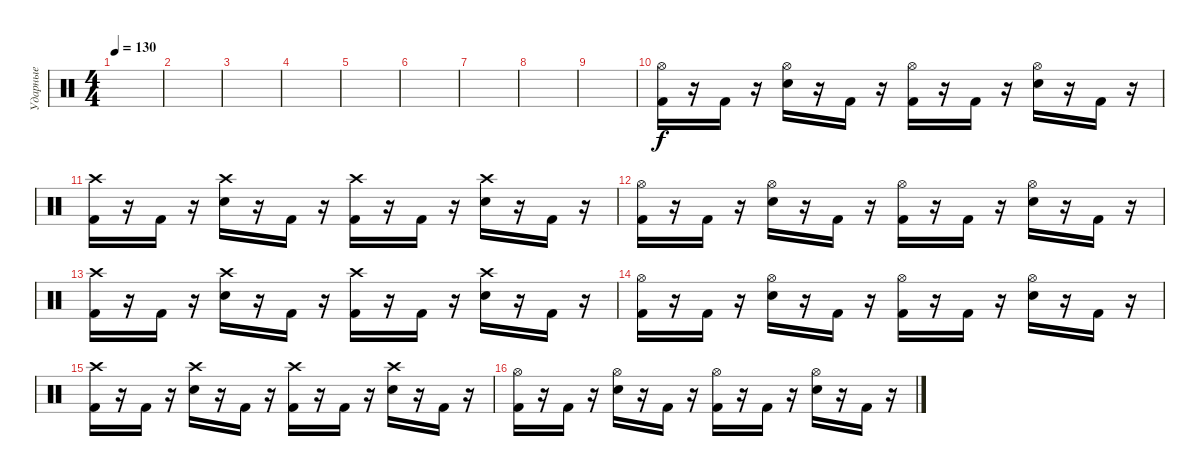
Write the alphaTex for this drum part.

\track ("Ударные" "Ударные") {instrument percussion}
\staff {score}
\articulation defaults
\ts (4 4)
\tempo 130
\clef neutral
\ks c
|
|
|
|
|
|
|
|
|
("Hi-Hat (open)" "Kick (hit) 2").16 r.16 "Kick (hit) 2".16 r.16 ("Hi-Hat (open)" "Electric Snare (hit)").16 r.16 "Kick (hit) 2".16 r.16 ("Hi-Hat (open)" "Kick (hit) 2").16 r.16 "Kick (hit) 2".16 r.16 ("Hi-Hat (open)" "Electric Snare (hit)").16 r.16 "Kick (hit) 2".16 r.16 |
("Crash high (hit)" "Kick (hit) 2").16 r.16 "Kick (hit) 2".16 r.16 ("Crash high (hit)" "Electric Snare (hit)").16 r.16 "Kick (hit) 2".16 r.16 ("Crash high (hit)" "Kick (hit) 2").16 r.16 "Kick (hit) 2".16 r.16 ("Crash high (hit)" "Electric Snare (hit)").16 r.16 "Kick (hit) 2".16 r.16 |
("Hi-Hat (open)" "Kick (hit) 2").16 r.16 "Kick (hit) 2".16 r.16 ("Hi-Hat (open)" "Electric Snare (hit)").16 r.16 "Kick (hit) 2".16 r.16 ("Hi-Hat (open)" "Kick (hit) 2").16 r.16 "Kick (hit) 2".16 r.16 ("Hi-Hat (open)" "Electric Snare (hit)").16 r.16 "Kick (hit) 2".16 r.16 |
("Crash high (hit)" "Kick (hit) 2").16 r.16 "Kick (hit) 2".16 r.16 ("Crash high (hit)" "Electric Snare (hit)").16 r.16 "Kick (hit) 2".16 r.16 ("Crash high (hit)" "Kick (hit) 2").16 r.16 "Kick (hit) 2".16 r.16 ("Crash high (hit)" "Electric Snare (hit)").16 r.16 "Kick (hit) 2".16 r.16 |
("Hi-Hat (open)" "Kick (hit) 2").16 r.16 "Kick (hit) 2".16 r.16 ("Hi-Hat (open)" "Electric Snare (hit)").16 r.16 "Kick (hit) 2".16 r.16 ("Hi-Hat (open)" "Kick (hit) 2").16 r.16 "Kick (hit) 2".16 r.16 ("Hi-Hat (open)" "Electric Snare (hit)").16 r.16 "Kick (hit) 2".16 r.16 |
("Crash high (hit)" "Kick (hit) 2").16 r.16 "Kick (hit) 2".16 r.16 ("Crash high (hit)" "Electric Snare (hit)").16 r.16 "Kick (hit) 2".16 r.16 ("Crash high (hit)" "Kick (hit) 2").16 r.16 "Kick (hit) 2".16 r.16 ("Crash high (hit)" "Electric Snare (hit)").16 r.16 "Kick (hit) 2".16 r.16 |
("Hi-Hat (open)" "Kick (hit) 2").16 r.16 "Kick (hit) 2".16 r.16 ("Hi-Hat (open)" "Electric Snare (hit)").16 r.16 "Kick (hit) 2".16 r.16 ("Hi-Hat (open)" "Kick (hit) 2").16 r.16 "Kick (hit) 2".16 r.16 ("Hi-Hat (open)" "Electric Snare (hit)").16 r.16 "Kick (hit) 2".16 r.16
